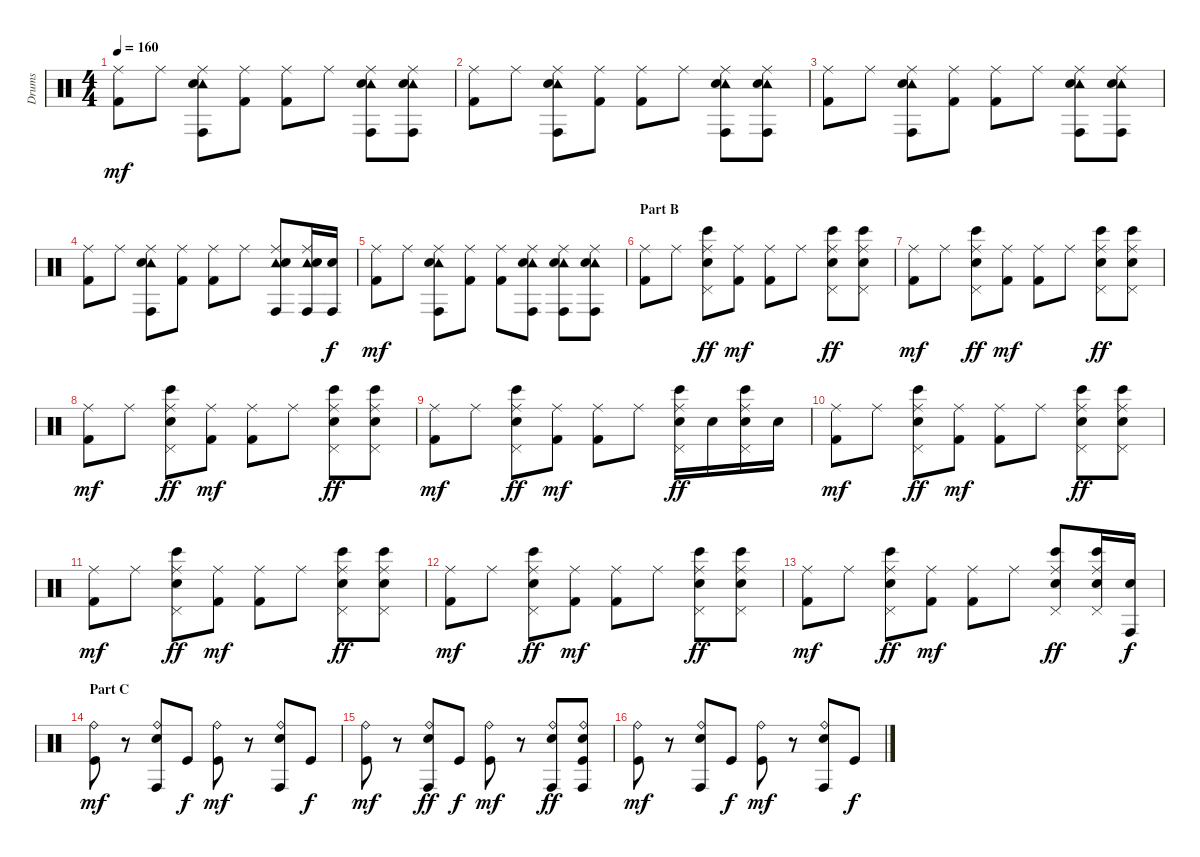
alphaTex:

\track ("Drums" "Drums") {instrument percussion}
\staff {score}
\articulation defaults
\ts (4 4)
\tempo 160
\clef neutral
\ks c
("Ride (middle)" "Kick (hit) 2").8{dy mf} "Ride (middle)".8 ("Ride (middle)" "Tambourine (hit)" "Conga high (hit)" "Electric Snare (hit)").8 ("Ride (middle)" "Kick (hit) 2").8 ("Ride (middle)" "Kick (hit) 2").8 "Ride (middle)".8 ("Ride (middle)" "Tambourine (hit)" "Conga high (hit)" "Electric Snare (hit)").8 ("Ride (middle)" "Tambourine (hit)" "Conga high (hit)" "Electric Snare (hit)").8 |
("Ride (middle)" "Kick (hit) 2").8 "Ride (middle)".8 ("Ride (middle)" "Tambourine (hit)" "Conga high (hit)" "Electric Snare (hit)").8 ("Ride (middle)" "Kick (hit) 2").8 ("Ride (middle)" "Kick (hit) 2").8 "Ride (middle)".8 ("Ride (middle)" "Tambourine (hit)" "Conga high (hit)" "Electric Snare (hit)").8 ("Ride (middle)" "Tambourine (hit)" "Conga high (hit)" "Electric Snare (hit)").8 |
("Ride (middle)" "Kick (hit) 2").8 "Ride (middle)".8 ("Ride (middle)" "Tambourine (hit)" "Conga high (hit)" "Electric Snare (hit)").8 ("Ride (middle)" "Kick (hit) 2").8 ("Ride (middle)" "Kick (hit) 2").8 "Ride (middle)".8 ("Ride (middle)" "Tambourine (hit)" "Conga high (hit)" "Electric Snare (hit)").8 ("Ride (middle)" "Tambourine (hit)" "Conga high (hit)" "Electric Snare (hit)").8 |
("Ride (middle)" "Kick (hit) 2").8 "Ride (middle)".8 ("Ride (middle)" "Tambourine (hit)" "Conga high (hit)" "Electric Snare (hit)").8 ("Ride (middle)" "Kick (hit) 2").8 ("Ride (middle)" "Kick (hit) 2").8 "Ride (middle)".8 ("Ride (middle)" "Tambourine (hit)" "Conga high (hit)" "Electric Snare (hit)").8 ("Ride (middle)" "Tambourine (hit)" "Conga high (hit)" "Electric Snare (hit)").16 ("Conga high (hit)" "Electric Snare (hit)").16{dy f} |
("Ride (middle)" "Kick (hit) 2").8{dy mf} "Ride (middle)".8 ("Ride (middle)" "Tambourine (hit)" "Conga high (hit)" "Electric Snare (hit)").8 ("Ride (middle)" "Kick (hit) 2").8 ("Ride (middle)" "Kick (hit) 2").8 ("Ride (middle)" "Tambourine (hit)" "Conga high (hit)" "Electric Snare (hit)").8 ("Ride (middle)" "Tambourine (hit)" "Conga high (hit)" "Electric Snare (hit)").8 ("Ride (middle)" "Tambourine (hit)" "Conga high (hit)" "Electric Snare (hit)").8 |
\section ("" "Part B")
("Ride (middle)" "Kick (hit) 2").8 "Ride (middle)".8 ("Ride (middle)" "Pedal Hi-Hat (hit)" "Bongo High (hit)" "Electric Snare (hit)").8{dy ff} ("Ride (middle)" "Kick (hit) 2").8{dy mf} ("Ride (middle)" "Kick (hit) 2").8 "Ride (middle)".8 ("Ride (middle)" "Pedal Hi-Hat (hit)" "Bongo High (hit)" "Electric Snare (hit)").8{dy ff} ("Ride (middle)" "Pedal Hi-Hat (hit)" "Bongo High (hit)" "Electric Snare (hit)").8 |
("Ride (middle)" "Kick (hit) 2").8{dy mf} "Ride (middle)".8 ("Ride (middle)" "Pedal Hi-Hat (hit)" "Bongo High (hit)" "Electric Snare (hit)").8{dy ff} ("Ride (middle)" "Kick (hit) 2").8{dy mf} ("Ride (middle)" "Kick (hit) 2").8 "Ride (middle)".8 ("Ride (middle)" "Pedal Hi-Hat (hit)" "Bongo High (hit)" "Electric Snare (hit)").8{dy ff} ("Ride (middle)" "Pedal Hi-Hat (hit)" "Bongo High (hit)" "Electric Snare (hit)").8 |
("Ride (middle)" "Kick (hit) 2").8{dy mf} "Ride (middle)".8 ("Ride (middle)" "Pedal Hi-Hat (hit)" "Bongo High (hit)" "Electric Snare (hit)").8{dy ff} ("Ride (middle)" "Kick (hit) 2").8{dy mf} ("Ride (middle)" "Kick (hit) 2").8 "Ride (middle)".8 ("Ride (middle)" "Pedal Hi-Hat (hit)" "Bongo High (hit)" "Electric Snare (hit)").8{dy ff} ("Ride (middle)" "Pedal Hi-Hat (hit)" "Bongo High (hit)" "Electric Snare (hit)").8 |
("Ride (middle)" "Kick (hit) 2").8{dy mf} "Ride (middle)".8 ("Ride (middle)" "Pedal Hi-Hat (hit)" "Bongo High (hit)" "Electric Snare (hit)").8{dy ff} ("Ride (middle)" "Kick (hit) 2").8{dy mf} ("Ride (middle)" "Kick (hit) 2").8 "Ride (middle)".8 ("Ride (middle)" "Pedal Hi-Hat (hit)" "Bongo High (hit)" "Electric Snare (hit)").16{dy ff} "Electric Snare (hit)".16 ("Ride (middle)" "Pedal Hi-Hat (hit)" "Bongo High (hit)" "Electric Snare (hit)").16 "Electric Snare (hit)".16 |
("Ride (middle)" "Kick (hit) 2").8{dy mf} "Ride (middle)".8 ("Ride (middle)" "Pedal Hi-Hat (hit)" "Bongo High (hit)" "Electric Snare (hit)").8{dy ff} ("Ride (middle)" "Kick (hit) 2").8{dy mf} ("Ride (middle)" "Kick (hit) 2").8 "Ride (middle)".8 ("Ride (middle)" "Pedal Hi-Hat (hit)" "Bongo High (hit)" "Electric Snare (hit)").8{dy ff} ("Ride (middle)" "Pedal Hi-Hat (hit)" "Bongo High (hit)" "Electric Snare (hit)").8 |
("Ride (middle)" "Kick (hit) 2").8{dy mf} "Ride (middle)".8 ("Ride (middle)" "Pedal Hi-Hat (hit)" "Bongo High (hit)" "Electric Snare (hit)").8{dy ff} ("Ride (middle)" "Kick (hit) 2").8{dy mf} ("Ride (middle)" "Kick (hit) 2").8 "Ride (middle)".8 ("Ride (middle)" "Pedal Hi-Hat (hit)" "Bongo High (hit)" "Electric Snare (hit)").8{dy ff} ("Ride (middle)" "Pedal Hi-Hat (hit)" "Bongo High (hit)" "Electric Snare (hit)").8 |
("Ride (middle)" "Kick (hit) 2").8{dy mf} "Ride (middle)".8 ("Ride (middle)" "Pedal Hi-Hat (hit)" "Bongo High (hit)" "Electric Snare (hit)").8{dy ff} ("Ride (middle)" "Kick (hit) 2").8{dy mf} ("Ride (middle)" "Kick (hit) 2").8 "Ride (middle)".8 ("Ride (middle)" "Pedal Hi-Hat (hit)" "Bongo High (hit)" "Electric Snare (hit)").8{dy ff} ("Ride (middle)" "Pedal Hi-Hat (hit)" "Bongo High (hit)" "Electric Snare (hit)").8 |
("Ride (middle)" "Kick (hit) 2").8{dy mf} "Ride (middle)".8 ("Ride (middle)" "Pedal Hi-Hat (hit)" "Bongo High (hit)" "Electric Snare (hit)").8{dy ff} ("Ride (middle)" "Kick (hit) 2").8{dy mf} ("Ride (middle)" "Kick (hit) 2").8 "Ride (middle)".8 ("Ride (middle)" "Pedal Hi-Hat (hit)" "Bongo High (hit)" "Electric Snare (hit)").8{dy ff} ("Ride (middle)" "Pedal Hi-Hat (hit)" "Bongo High (hit)" "Electric Snare (hit)").16 ("Conga high (hit)" "Electric Snare (hit)").16{dy f} |
\section ("" "Part C")
("Ride (bell)" "Kick (hit)").8{dy mf} r.8 ("Ride (bell)" "Conga high (hit)" "Electric Snare (hit)").8 "Kick (hit)".8{dy f} ("Ride (bell)" "Kick (hit)").8{dy mf} r.8 ("Ride (bell)" "Conga high (hit)" "Electric Snare (hit)").8 "Kick (hit)".8{dy f} |
("Ride (bell)" "Kick (hit)").8{dy mf} r.8 ("Ride (bell)" "Conga high (hit)" "Electric Snare (hit)").8{dy ff} "Kick (hit)".8{dy f} ("Ride (bell)" "Kick (hit)").8{dy mf} r.8 ("Ride (bell)" "Conga high (hit)" "Electric Snare (hit)").8{dy ff} ("Ride (bell)" "Conga high (hit)" "Electric Snare (hit)" "Kick (hit)").8 |
("Ride (bell)" "Kick (hit)").8{dy mf} r.8 ("Ride (bell)" "Conga high (hit)" "Electric Snare (hit)").8 "Kick (hit)".8{dy f} ("Ride (bell)" "Kick (hit)").8{dy mf} r.8 ("Ride (bell)" "Conga high (hit)" "Electric Snare (hit)").8 "Kick (hit)".8{dy f}
